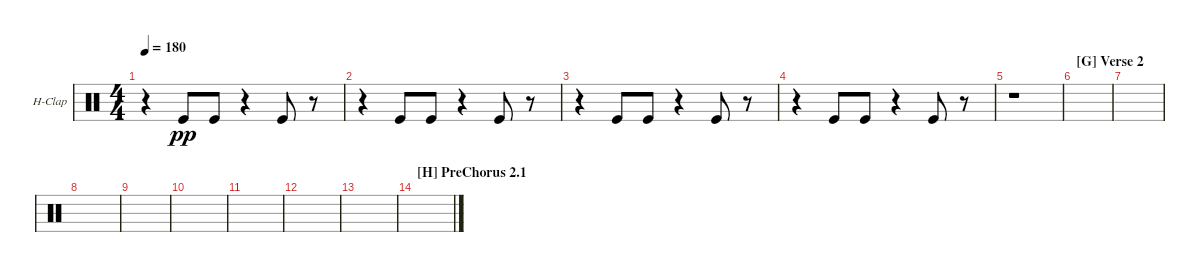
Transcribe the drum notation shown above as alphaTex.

\defaultSystemsLayout 4
\bracketExtendMode groupsimilarinstruments
\firstSystemTrackNameOrientation horizontal
\otherSystemsTrackNameOrientation horizontal
\track ("Hand Clap" "H-Clap") {instrument percussion}
\staff {score}
\articulation defaults
\ts (4 4)
\tempo 180
\clef neutral
\ks c
r.4{dy pp} "Kick (hit)".8 "Kick (hit)".8 r.4 "Kick (hit)".8 r.8 |
r.4 "Kick (hit)".8 "Kick (hit)".8 r.4 "Kick (hit)".8 r.8 |
r.4 "Kick (hit)".8 "Kick (hit)".8 r.4 "Kick (hit)".8 r.8 |
r.4 "Kick (hit)".8 "Kick (hit)".8 r.4 "Kick (hit)".8 r.8 |
r.1 |
\section ("G" "Verse 2")
|
|
|
|
|
|
|
|
\section ("H" "PreChorus 2.1")
